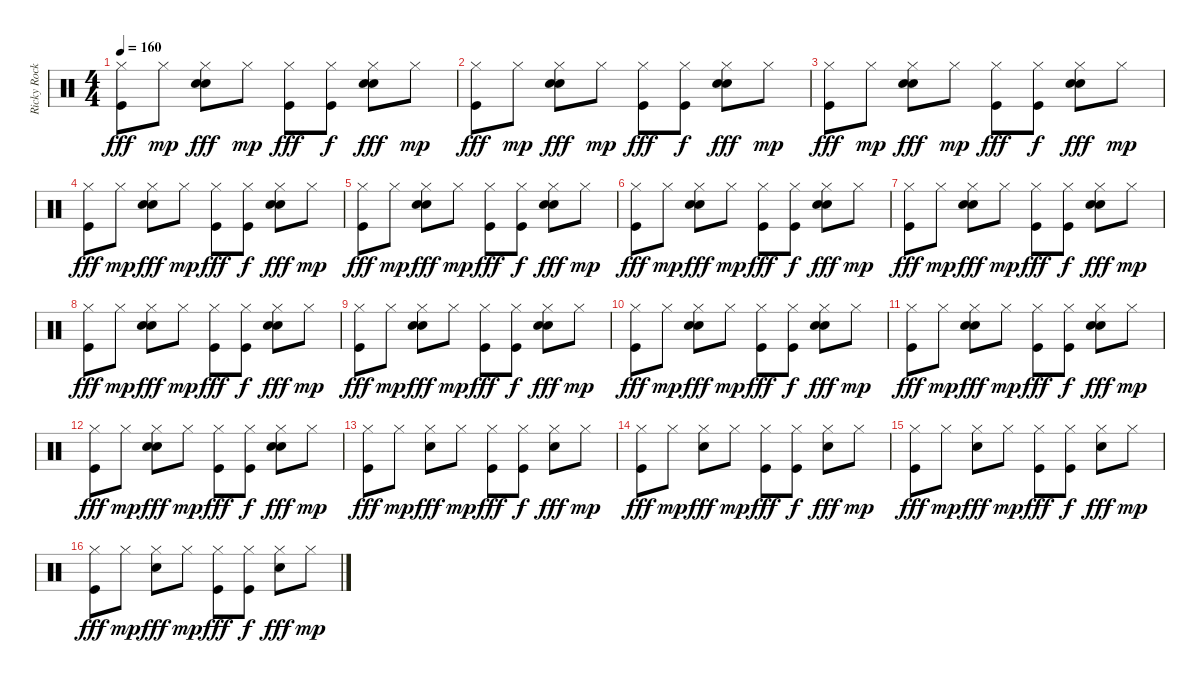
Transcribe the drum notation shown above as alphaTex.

\track ("Ricky Rockett" "Ricky Rock") {instrument percussion}
\staff {score}
\articulation defaults
\ts (4 4)
\tempo 160
\clef neutral
\ks c
("Hi-Hat (closed)" "Kick (hit)").8{dy fff} "Hi-Hat (closed)".8{dy mp} ("Snare (hit) 2" "Hi-Hat (closed)" "Electric Snare (hit)").8{dy fff} "Hi-Hat (closed)".8{dy mp} ("Hi-Hat (closed)" "Kick (hit)").8{dy fff} ("Hi-Hat (closed)" "Kick (hit)").8{dy f} ("Snare (hit) 2" "Hi-Hat (closed)" "Electric Snare (hit)").8{dy fff} "Hi-Hat (closed)".8{dy mp} |
("Hi-Hat (closed)" "Kick (hit)").8{dy fff} "Hi-Hat (closed)".8{dy mp} ("Snare (hit) 2" "Hi-Hat (closed)" "Electric Snare (hit)").8{dy fff} "Hi-Hat (closed)".8{dy mp} ("Hi-Hat (closed)" "Kick (hit)").8{dy fff} ("Hi-Hat (closed)" "Kick (hit)").8{dy f} ("Snare (hit) 2" "Hi-Hat (closed)" "Electric Snare (hit)").8{dy fff} "Hi-Hat (closed)".8{dy mp} |
("Hi-Hat (closed)" "Kick (hit)").8{dy fff} "Hi-Hat (closed)".8{dy mp} ("Snare (hit) 2" "Hi-Hat (closed)" "Electric Snare (hit)").8{dy fff} "Hi-Hat (closed)".8{dy mp} ("Hi-Hat (closed)" "Kick (hit)").8{dy fff} ("Hi-Hat (closed)" "Kick (hit)").8{dy f} ("Snare (hit) 2" "Hi-Hat (closed)" "Electric Snare (hit)").8{dy fff} "Hi-Hat (closed)".8{dy mp} |
("Hi-Hat (closed)" "Kick (hit)").8{dy fff} "Hi-Hat (closed)".8{dy mp} ("Snare (hit) 2" "Hi-Hat (closed)" "Electric Snare (hit)").8{dy fff} "Hi-Hat (closed)".8{dy mp} ("Hi-Hat (closed)" "Kick (hit)").8{dy fff} ("Hi-Hat (closed)" "Kick (hit)").8{dy f} ("Snare (hit) 2" "Hi-Hat (closed)" "Electric Snare (hit)").8{dy fff} "Hi-Hat (closed)".8{dy mp} |
("Hi-Hat (closed)" "Kick (hit)").8{dy fff} "Hi-Hat (closed)".8{dy mp} ("Snare (hit) 2" "Hi-Hat (closed)" "Electric Snare (hit)").8{dy fff} "Hi-Hat (closed)".8{dy mp} ("Hi-Hat (closed)" "Kick (hit)").8{dy fff} ("Hi-Hat (closed)" "Kick (hit)").8{dy f} ("Snare (hit) 2" "Hi-Hat (closed)" "Electric Snare (hit)").8{dy fff} "Hi-Hat (closed)".8{dy mp} |
("Hi-Hat (closed)" "Kick (hit)").8{dy fff} "Hi-Hat (closed)".8{dy mp} ("Snare (hit) 2" "Hi-Hat (closed)" "Electric Snare (hit)").8{dy fff} "Hi-Hat (closed)".8{dy mp} ("Hi-Hat (closed)" "Kick (hit)").8{dy fff} ("Hi-Hat (closed)" "Kick (hit)").8{dy f} ("Snare (hit) 2" "Hi-Hat (closed)" "Electric Snare (hit)").8{dy fff} "Hi-Hat (closed)".8{dy mp} |
("Hi-Hat (closed)" "Kick (hit)").8{dy fff} "Hi-Hat (closed)".8{dy mp} ("Snare (hit) 2" "Hi-Hat (closed)" "Electric Snare (hit)").8{dy fff} "Hi-Hat (closed)".8{dy mp} ("Hi-Hat (closed)" "Kick (hit)").8{dy fff} ("Hi-Hat (closed)" "Kick (hit)").8{dy f} ("Snare (hit) 2" "Hi-Hat (closed)" "Electric Snare (hit)").8{dy fff} "Hi-Hat (closed)".8{dy mp} |
("Hi-Hat (closed)" "Kick (hit)").8{dy fff} "Hi-Hat (closed)".8{dy mp} ("Snare (hit) 2" "Hi-Hat (closed)" "Electric Snare (hit)").8{dy fff} "Hi-Hat (closed)".8{dy mp} ("Hi-Hat (closed)" "Kick (hit)").8{dy fff} ("Hi-Hat (closed)" "Kick (hit)").8{dy f} ("Snare (hit) 2" "Hi-Hat (closed)" "Electric Snare (hit)").8{dy fff} "Hi-Hat (closed)".8{dy mp} |
("Hi-Hat (closed)" "Kick (hit)").8{dy fff} "Hi-Hat (closed)".8{dy mp} ("Snare (hit) 2" "Hi-Hat (closed)" "Electric Snare (hit)").8{dy fff} "Hi-Hat (closed)".8{dy mp} ("Hi-Hat (closed)" "Kick (hit)").8{dy fff} ("Hi-Hat (closed)" "Kick (hit)").8{dy f} ("Snare (hit) 2" "Hi-Hat (closed)" "Electric Snare (hit)").8{dy fff} "Hi-Hat (closed)".8{dy mp} |
("Hi-Hat (closed)" "Kick (hit)").8{dy fff} "Hi-Hat (closed)".8{dy mp} ("Snare (hit) 2" "Hi-Hat (closed)" "Electric Snare (hit)").8{dy fff} "Hi-Hat (closed)".8{dy mp} ("Hi-Hat (closed)" "Kick (hit)").8{dy fff} ("Hi-Hat (closed)" "Kick (hit)").8{dy f} ("Snare (hit) 2" "Hi-Hat (closed)" "Electric Snare (hit)").8{dy fff} "Hi-Hat (closed)".8{dy mp} |
("Hi-Hat (closed)" "Kick (hit)").8{dy fff} "Hi-Hat (closed)".8{dy mp} ("Snare (hit) 2" "Hi-Hat (closed)" "Electric Snare (hit)").8{dy fff} "Hi-Hat (closed)".8{dy mp} ("Hi-Hat (closed)" "Kick (hit)").8{dy fff} ("Hi-Hat (closed)" "Kick (hit)").8{dy f} ("Snare (hit) 2" "Hi-Hat (closed)" "Electric Snare (hit)").8{dy fff} "Hi-Hat (closed)".8{dy mp} |
("Hi-Hat (closed)" "Kick (hit)").8{dy fff} "Hi-Hat (closed)".8{dy mp} ("Snare (hit) 2" "Hi-Hat (closed)" "Electric Snare (hit)").8{dy fff} "Hi-Hat (closed)".8{dy mp} ("Hi-Hat (closed)" "Kick (hit)").8{dy fff} ("Hi-Hat (closed)" "Kick (hit)").8{dy f} ("Snare (hit) 2" "Hi-Hat (closed)" "Electric Snare (hit)").8{dy fff} "Hi-Hat (closed)".8{dy mp} |
("Hi-Hat (closed)" "Kick (hit)").8{dy fff} "Hi-Hat (closed)".8{dy mp} ("Snare (hit) 2" "Hi-Hat (closed)").8{dy fff} "Hi-Hat (closed)".8{dy mp} ("Hi-Hat (closed)" "Kick (hit)").8{dy fff} ("Hi-Hat (closed)" "Kick (hit)").8{dy f} ("Snare (hit) 2" "Hi-Hat (closed)").8{dy fff} "Hi-Hat (closed)".8{dy mp} |
("Hi-Hat (closed)" "Kick (hit)").8{dy fff} "Hi-Hat (closed)".8{dy mp} ("Snare (hit) 2" "Hi-Hat (closed)").8{dy fff} "Hi-Hat (closed)".8{dy mp} ("Hi-Hat (closed)" "Kick (hit)").8{dy fff} ("Hi-Hat (closed)" "Kick (hit)").8{dy f} ("Snare (hit) 2" "Hi-Hat (closed)").8{dy fff} "Hi-Hat (closed)".8{dy mp} |
("Hi-Hat (closed)" "Kick (hit)").8{dy fff} "Hi-Hat (closed)".8{dy mp} ("Snare (hit) 2" "Hi-Hat (closed)").8{dy fff} "Hi-Hat (closed)".8{dy mp} ("Hi-Hat (closed)" "Kick (hit)").8{dy fff} ("Hi-Hat (closed)" "Kick (hit)").8{dy f} ("Snare (hit) 2" "Hi-Hat (closed)").8{dy fff} "Hi-Hat (closed)".8{dy mp} |
("Hi-Hat (closed)" "Kick (hit)").8{dy fff} "Hi-Hat (closed)".8{dy mp} ("Snare (hit) 2" "Hi-Hat (closed)").8{dy fff} "Hi-Hat (closed)".8{dy mp} ("Hi-Hat (closed)" "Kick (hit)").8{dy fff} ("Hi-Hat (closed)" "Kick (hit)").8{dy f} ("Snare (hit) 2" "Hi-Hat (closed)").8{dy fff} "Hi-Hat (closed)".8{dy mp}
